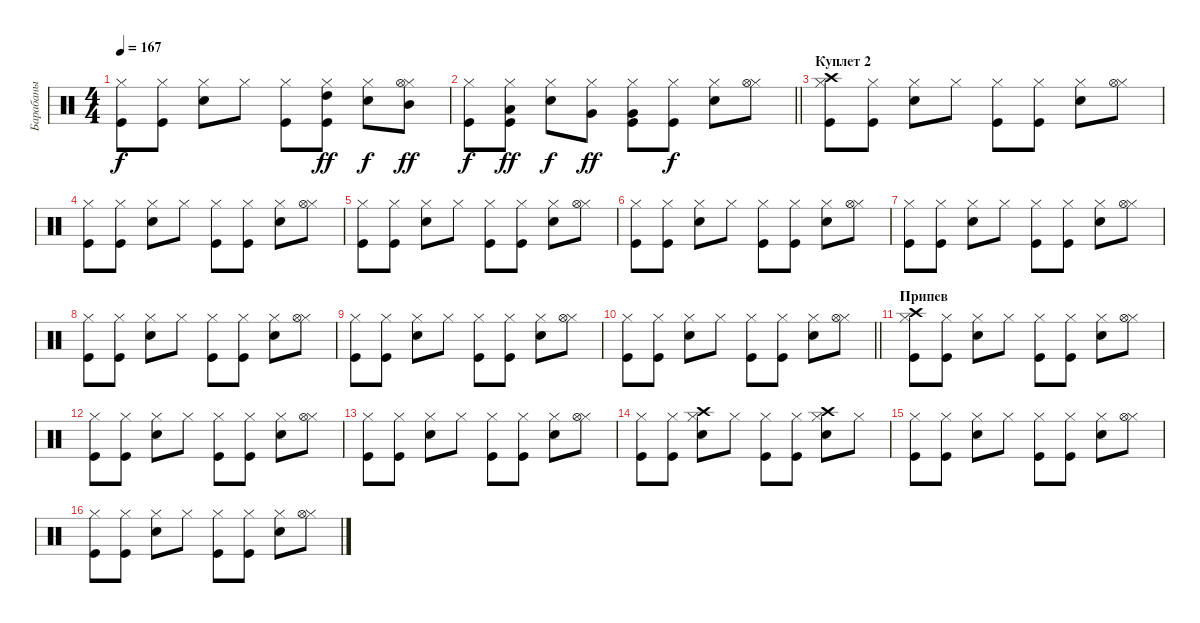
\track ("Барабаны" "Барабаны") {instrument percussion}
\staff {score}
\articulation defaults
\ts (4 4)
\tempo 167
\clef neutral
\ks c
("Kick (hit)" "Hi-Hat (closed)").8{dy f} ("Kick (hit)" "Hi-Hat (closed)").8 ("Snare (hit) 2" "Hi-Hat (closed)").8 "Hi-Hat (closed)".8 ("Kick (hit)" "Hi-Hat (closed)").8 ("Kick (hit)" "Hi-Hat (closed)" "High Tom (hit)").8{dy ff} ("Snare (hit) 2" "Hi-Hat (closed)").8{dy f} ("Hi-Hat (closed)" "Hi-Hat (open)" "Mid Tom (hit)").8{dy ff} |
\barLineRight lightlight
("Kick (hit)" "Hi-Hat (closed)").8{dy f} ("Kick (hit)" "Hi-Hat (closed)" "Low Tom (hit)").8{dy ff} ("Snare (hit) 2" "Hi-Hat (closed)").8{dy f} ("Hi-Hat (closed)" "Very Low Tom (hit)").8{dy ff} ("Kick (hit)" "Hi-Hat (closed)" "Very Low Tom (hit)").8 ("Kick (hit)" "Hi-Hat (closed)").8{dy f} ("Snare (hit) 2" "Hi-Hat (closed)").8 ("Hi-Hat (closed)" "Hi-Hat (open)").8 |
\section ("" "Куплет 2")
("Kick (hit)" "Hi-Hat (closed)" "Crash high (hit)").8 ("Kick (hit)" "Hi-Hat (closed)").8 ("Snare (hit) 2" "Hi-Hat (closed)").8 "Hi-Hat (closed)".8 ("Kick (hit)" "Hi-Hat (closed)").8 ("Kick (hit)" "Hi-Hat (closed)").8 ("Snare (hit) 2" "Hi-Hat (closed)").8 ("Hi-Hat (closed)" "Hi-Hat (open)").8 |
("Kick (hit)" "Hi-Hat (closed)").8 ("Kick (hit)" "Hi-Hat (closed)").8 ("Snare (hit) 2" "Hi-Hat (closed)").8 "Hi-Hat (closed)".8 ("Kick (hit)" "Hi-Hat (closed)").8 ("Kick (hit)" "Hi-Hat (closed)").8 ("Snare (hit) 2" "Hi-Hat (closed)").8 ("Hi-Hat (closed)" "Hi-Hat (open)").8 |
("Kick (hit)" "Hi-Hat (closed)").8 ("Kick (hit)" "Hi-Hat (closed)").8 ("Snare (hit) 2" "Hi-Hat (closed)").8 "Hi-Hat (closed)".8 ("Kick (hit)" "Hi-Hat (closed)").8 ("Kick (hit)" "Hi-Hat (closed)").8 ("Snare (hit) 2" "Hi-Hat (closed)").8 ("Hi-Hat (closed)" "Hi-Hat (open)").8 |
("Kick (hit)" "Hi-Hat (closed)").8 ("Kick (hit)" "Hi-Hat (closed)").8 ("Snare (hit) 2" "Hi-Hat (closed)").8 "Hi-Hat (closed)".8 ("Kick (hit)" "Hi-Hat (closed)").8 ("Kick (hit)" "Hi-Hat (closed)").8 ("Snare (hit) 2" "Hi-Hat (closed)").8 ("Hi-Hat (closed)" "Hi-Hat (open)").8 |
("Kick (hit)" "Hi-Hat (closed)").8 ("Kick (hit)" "Hi-Hat (closed)").8 ("Snare (hit) 2" "Hi-Hat (closed)").8 "Hi-Hat (closed)".8 ("Kick (hit)" "Hi-Hat (closed)").8 ("Kick (hit)" "Hi-Hat (closed)").8 ("Snare (hit) 2" "Hi-Hat (closed)").8 ("Hi-Hat (closed)" "Hi-Hat (open)").8 |
("Kick (hit)" "Hi-Hat (closed)").8 ("Kick (hit)" "Hi-Hat (closed)").8 ("Snare (hit) 2" "Hi-Hat (closed)").8 "Hi-Hat (closed)".8 ("Kick (hit)" "Hi-Hat (closed)").8 ("Kick (hit)" "Hi-Hat (closed)").8 ("Snare (hit) 2" "Hi-Hat (closed)").8 ("Hi-Hat (closed)" "Hi-Hat (open)").8 |
("Kick (hit)" "Hi-Hat (closed)").8 ("Kick (hit)" "Hi-Hat (closed)").8 ("Snare (hit) 2" "Hi-Hat (closed)").8 "Hi-Hat (closed)".8 ("Kick (hit)" "Hi-Hat (closed)").8 ("Kick (hit)" "Hi-Hat (closed)").8 ("Snare (hit) 2" "Hi-Hat (closed)").8 ("Hi-Hat (closed)" "Hi-Hat (open)").8 |
\barLineRight lightlight
("Kick (hit)" "Hi-Hat (closed)").8 ("Kick (hit)" "Hi-Hat (closed)").8 ("Snare (hit) 2" "Hi-Hat (closed)").8 "Hi-Hat (closed)".8 ("Kick (hit)" "Hi-Hat (closed)").8 ("Kick (hit)" "Hi-Hat (closed)").8 ("Snare (hit) 2" "Hi-Hat (closed)").8 ("Hi-Hat (closed)" "Hi-Hat (open)").8 |
\section ("" "Припев")
("Kick (hit)" "Hi-Hat (closed)" "Crash high (hit)").8 ("Kick (hit)" "Hi-Hat (closed)").8 ("Snare (hit) 2" "Hi-Hat (closed)").8 "Hi-Hat (closed)".8 ("Kick (hit)" "Hi-Hat (closed)").8 ("Kick (hit)" "Hi-Hat (closed)").8 ("Snare (hit) 2" "Hi-Hat (closed)").8 ("Hi-Hat (closed)" "Hi-Hat (open)").8 |
("Kick (hit)" "Hi-Hat (closed)").8 ("Kick (hit)" "Hi-Hat (closed)").8 ("Snare (hit) 2" "Hi-Hat (closed)").8 "Hi-Hat (closed)".8 ("Kick (hit)" "Hi-Hat (closed)").8 ("Kick (hit)" "Hi-Hat (closed)").8 ("Snare (hit) 2" "Hi-Hat (closed)").8 ("Hi-Hat (closed)" "Hi-Hat (open)").8 |
("Kick (hit)" "Hi-Hat (closed)").8 ("Kick (hit)" "Hi-Hat (closed)").8 ("Snare (hit) 2" "Hi-Hat (closed)").8 "Hi-Hat (closed)".8 ("Kick (hit)" "Hi-Hat (closed)").8 ("Kick (hit)" "Hi-Hat (closed)").8 ("Snare (hit) 2" "Hi-Hat (closed)").8 ("Hi-Hat (closed)" "Hi-Hat (open)").8 |
("Kick (hit)" "Hi-Hat (closed)").8 ("Kick (hit)" "Hi-Hat (closed)").8 ("Snare (hit) 2" "Hi-Hat (closed)" "Crash high (hit)").8 "Hi-Hat (closed)".8 ("Kick (hit)" "Hi-Hat (closed)").8 ("Kick (hit)" "Hi-Hat (closed)").8 ("Snare (hit) 2" "Hi-Hat (closed)" "Crash high (hit)").8 "Hi-Hat (closed)".8 |
("Kick (hit)" "Hi-Hat (closed)").8 ("Kick (hit)" "Hi-Hat (closed)").8 ("Snare (hit) 2" "Hi-Hat (closed)").8 "Hi-Hat (closed)".8 ("Kick (hit)" "Hi-Hat (closed)").8 ("Kick (hit)" "Hi-Hat (closed)").8 ("Snare (hit) 2" "Hi-Hat (closed)").8 ("Hi-Hat (closed)" "Hi-Hat (open)").8 |
("Kick (hit)" "Hi-Hat (closed)").8 ("Kick (hit)" "Hi-Hat (closed)").8 ("Snare (hit) 2" "Hi-Hat (closed)").8 "Hi-Hat (closed)".8 ("Kick (hit)" "Hi-Hat (closed)").8 ("Kick (hit)" "Hi-Hat (closed)").8 ("Snare (hit) 2" "Hi-Hat (closed)").8 ("Hi-Hat (closed)" "Hi-Hat (open)").8
